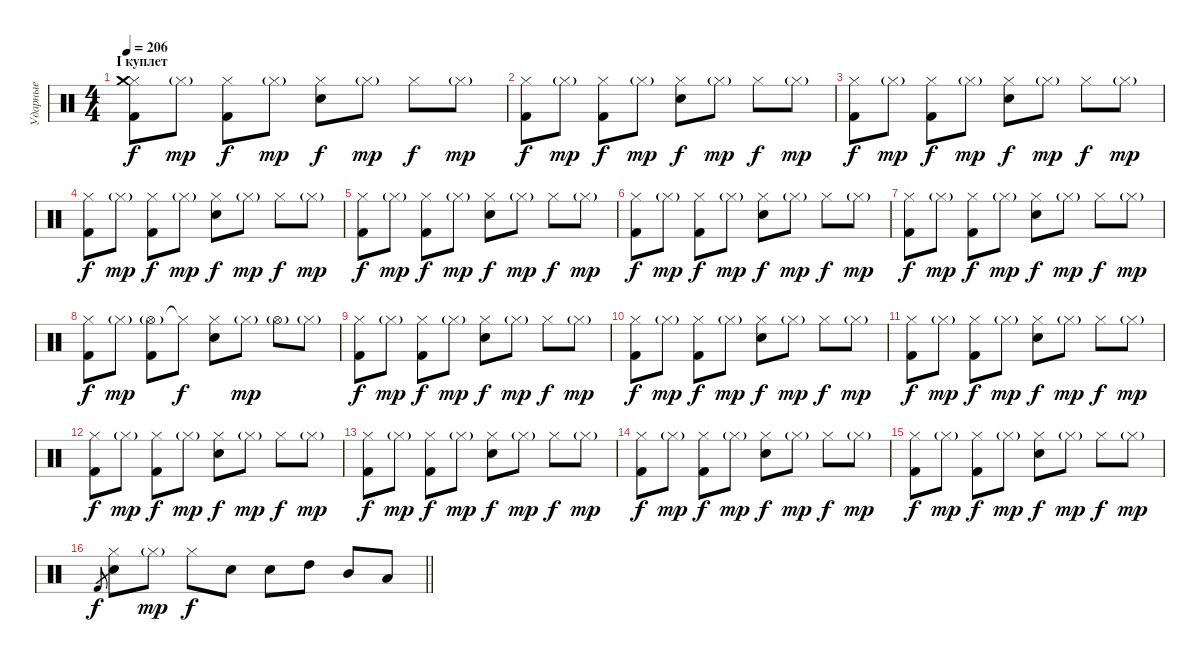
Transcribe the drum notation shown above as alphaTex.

\track ("Ударные" "Ударные") {instrument percussion}
\staff {score}
\articulation defaults
\ts (4 4)
\section ("" "I куплет")
\tempo 206
\clef neutral
\ks c
("Hi-Hat (closed)" "Kick (hit) 2" "Crash medium (hit)").8{dy f} "Hi-Hat (closed)"{g}.8{dy mp} ("Hi-Hat (closed)" "Kick (hit) 2").8{dy f} "Hi-Hat (closed)"{g}.8{dy mp} ("Hi-Hat (closed)" "Electric Snare (hit)").8{dy f} "Hi-Hat (closed)"{g}.8{dy mp} "Hi-Hat (closed)".8{dy f} "Hi-Hat (closed)"{g}.8{dy mp} |
("Hi-Hat (closed)" "Kick (hit) 2").8{dy f} "Hi-Hat (closed)"{g}.8{dy mp} ("Hi-Hat (closed)" "Kick (hit) 2").8{dy f} "Hi-Hat (closed)"{g}.8{dy mp} ("Hi-Hat (closed)" "Electric Snare (hit)").8{dy f} "Hi-Hat (closed)"{g}.8{dy mp} "Hi-Hat (closed)".8{dy f} "Hi-Hat (closed)"{g}.8{dy mp} |
("Hi-Hat (closed)" "Kick (hit) 2").8{dy f} "Hi-Hat (closed)"{g}.8{dy mp} ("Hi-Hat (closed)" "Kick (hit) 2").8{dy f} "Hi-Hat (closed)"{g}.8{dy mp} ("Hi-Hat (closed)" "Electric Snare (hit)").8{dy f} "Hi-Hat (closed)"{g}.8{dy mp} "Hi-Hat (closed)".8{dy f} "Hi-Hat (closed)"{g}.8{dy mp} |
("Hi-Hat (closed)" "Kick (hit) 2").8{dy f} "Hi-Hat (closed)"{g}.8{dy mp} ("Hi-Hat (closed)" "Kick (hit) 2").8{dy f} "Hi-Hat (closed)"{g}.8{dy mp} ("Hi-Hat (closed)" "Electric Snare (hit)").8{dy f} "Hi-Hat (closed)"{g}.8{dy mp} "Hi-Hat (closed)".8{dy f} "Hi-Hat (closed)"{g}.8{dy mp} |
("Hi-Hat (closed)" "Kick (hit) 2").8{dy f} "Hi-Hat (closed)"{g}.8{dy mp} ("Hi-Hat (closed)" "Kick (hit) 2").8{dy f} "Hi-Hat (closed)"{g}.8{dy mp} ("Hi-Hat (closed)" "Electric Snare (hit)").8{dy f} "Hi-Hat (closed)"{g}.8{dy mp} "Hi-Hat (closed)".8{dy f} "Hi-Hat (closed)"{g}.8{dy mp} |
("Hi-Hat (closed)" "Kick (hit) 2").8{dy f} "Hi-Hat (closed)"{g}.8{dy mp} ("Hi-Hat (closed)" "Kick (hit) 2").8{dy f} "Hi-Hat (closed)"{g}.8{dy mp} ("Hi-Hat (closed)" "Electric Snare (hit)").8{dy f} "Hi-Hat (closed)"{g}.8{dy mp} "Hi-Hat (closed)".8{dy f} "Hi-Hat (closed)"{g}.8{dy mp} |
("Hi-Hat (closed)" "Kick (hit) 2").8{dy f} "Hi-Hat (closed)"{g}.8{dy mp} ("Hi-Hat (closed)" "Kick (hit) 2").8{dy f} "Hi-Hat (closed)"{g}.8{dy mp} ("Hi-Hat (closed)" "Electric Snare (hit)").8{dy f} "Hi-Hat (closed)"{g}.8{dy mp} "Hi-Hat (closed)".8{dy f} "Hi-Hat (closed)"{g}.8{dy mp} |
("Hi-Hat (closed)" "Kick (hit) 2").8{dy f} "Hi-Hat (closed)"{g}.8{dy mp} ("Hi-Hat (open)"{g} "Kick (hit) 2").8 "Hi-Hat (closed)"{t}.8{dy f} ("Hi-Hat (closed)" "Electric Snare (hit)").8 "Hi-Hat (closed)"{g}.8{dy mp} "Hi-Hat (open)"{g}.8 "Hi-Hat (closed)"{g}.8 |
("Hi-Hat (closed)" "Kick (hit) 2").8{dy f} "Hi-Hat (closed)"{g}.8{dy mp} ("Hi-Hat (closed)" "Kick (hit) 2").8{dy f} "Hi-Hat (closed)"{g}.8{dy mp} ("Hi-Hat (closed)" "Electric Snare (hit)").8{dy f} "Hi-Hat (closed)"{g}.8{dy mp} "Hi-Hat (closed)".8{dy f} "Hi-Hat (closed)"{g}.8{dy mp} |
("Hi-Hat (closed)" "Kick (hit) 2").8{dy f} "Hi-Hat (closed)"{g}.8{dy mp} ("Hi-Hat (closed)" "Kick (hit) 2").8{dy f} "Hi-Hat (closed)"{g}.8{dy mp} ("Hi-Hat (closed)" "Electric Snare (hit)").8{dy f} "Hi-Hat (closed)"{g}.8{dy mp} "Hi-Hat (closed)".8{dy f} "Hi-Hat (closed)"{g}.8{dy mp} |
("Hi-Hat (closed)" "Kick (hit) 2").8{dy f} "Hi-Hat (closed)"{g}.8{dy mp} ("Hi-Hat (closed)" "Kick (hit) 2").8{dy f} "Hi-Hat (closed)"{g}.8{dy mp} ("Hi-Hat (closed)" "Electric Snare (hit)").8{dy f} "Hi-Hat (closed)"{g}.8{dy mp} "Hi-Hat (closed)".8{dy f} "Hi-Hat (closed)"{g}.8{dy mp} |
("Hi-Hat (closed)" "Kick (hit) 2").8{dy f} "Hi-Hat (closed)"{g}.8{dy mp} ("Hi-Hat (closed)" "Kick (hit) 2").8{dy f} "Hi-Hat (closed)"{g}.8{dy mp} ("Hi-Hat (closed)" "Electric Snare (hit)").8{dy f} "Hi-Hat (closed)"{g}.8{dy mp} "Hi-Hat (closed)".8{dy f} "Hi-Hat (closed)"{g}.8{dy mp} |
("Hi-Hat (closed)" "Kick (hit) 2").8{dy f} "Hi-Hat (closed)"{g}.8{dy mp} ("Hi-Hat (closed)" "Kick (hit) 2").8{dy f} "Hi-Hat (closed)"{g}.8{dy mp} ("Hi-Hat (closed)" "Electric Snare (hit)").8{dy f} "Hi-Hat (closed)"{g}.8{dy mp} "Hi-Hat (closed)".8{dy f} "Hi-Hat (closed)"{g}.8{dy mp} |
("Hi-Hat (closed)" "Kick (hit) 2").8{dy f} "Hi-Hat (closed)"{g}.8{dy mp} ("Hi-Hat (closed)" "Kick (hit) 2").8{dy f} "Hi-Hat (closed)"{g}.8{dy mp} ("Hi-Hat (closed)" "Electric Snare (hit)").8{dy f} "Hi-Hat (closed)"{g}.8{dy mp} "Hi-Hat (closed)".8{dy f} "Hi-Hat (closed)"{g}.8{dy mp} |
("Hi-Hat (closed)" "Kick (hit) 2").8{dy f} "Hi-Hat (closed)"{g}.8{dy mp} ("Hi-Hat (closed)" "Kick (hit) 2").8{dy f} "Hi-Hat (closed)"{g}.8{dy mp} ("Hi-Hat (closed)" "Electric Snare (hit)").8{dy f} "Hi-Hat (closed)"{g}.8{dy mp} "Hi-Hat (closed)".8{dy f} "Hi-Hat (closed)"{g}.8{dy mp} |
\barLineRight lightlight "Kick (hit) 2".8{gr dy f}
("Hi-Hat (closed)" "Electric Snare (hit)").8 "Hi-Hat (closed)"{g}.8{dy mp} "Hi-Hat (closed)".8{dy f} "Electric Snare (hit)".8 "Electric Snare (hit)".8 "High Tom (hit)".8 "Mid Tom (hit)".8 "Low Tom (hit)".8
